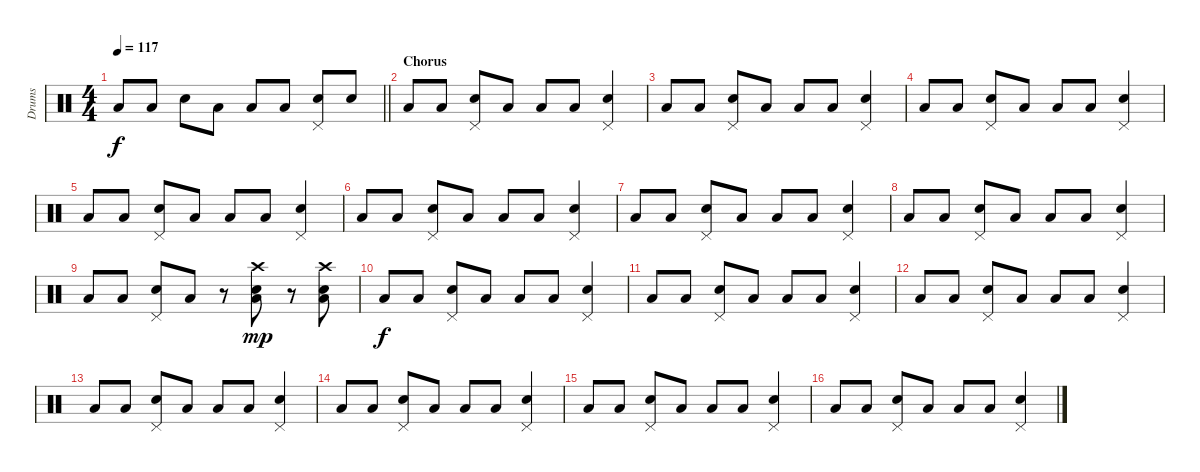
\track ("Drums" "Drums") {instrument percussion}
\staff {score}
\articulation defaults
\ts (4 4)
\tempo 117
\clef neutral
\barLineRight lightlight
\ks c "Low Tom (hit)".8{dy f} "Low Tom (hit)".8 "Snare (hit) 2".8 "Low Tom (hit)".8 "Low Tom (hit)".8 "Low Tom (hit)".8
("Snare (hit) 2" "Pedal Hi-Hat (hit)").8 "Snare (hit) 2".8 |
\section ("" "Chorus")
"Low Tom (hit)".8 "Low Tom (hit)".8 ("Snare (hit) 2" "Pedal Hi-Hat (hit)").8 "Low Tom (hit)".8 "Low Tom (hit)".8 "Low Tom (hit)".8 ("Snare (hit) 2" "Pedal Hi-Hat (hit)").4 |
"Low Tom (hit)".8 "Low Tom (hit)".8 ("Snare (hit) 2" "Pedal Hi-Hat (hit)").8 "Low Tom (hit)".8 "Low Tom (hit)".8 "Low Tom (hit)".8 ("Snare (hit) 2" "Pedal Hi-Hat (hit)").4 |
"Low Tom (hit)".8 "Low Tom (hit)".8 ("Snare (hit) 2" "Pedal Hi-Hat (hit)").8 "Low Tom (hit)".8 "Low Tom (hit)".8 "Low Tom (hit)".8 ("Snare (hit) 2" "Pedal Hi-Hat (hit)").4 |
"Low Tom (hit)".8 "Low Tom (hit)".8 ("Snare (hit) 2" "Pedal Hi-Hat (hit)").8 "Low Tom (hit)".8 "Low Tom (hit)".8 "Low Tom (hit)".8 ("Snare (hit) 2" "Pedal Hi-Hat (hit)").4 |
"Low Tom (hit)".8 "Low Tom (hit)".8 ("Snare (hit) 2" "Pedal Hi-Hat (hit)").8 "Low Tom (hit)".8 "Low Tom (hit)".8 "Low Tom (hit)".8 ("Snare (hit) 2" "Pedal Hi-Hat (hit)").4 |
"Low Tom (hit)".8 "Low Tom (hit)".8 ("Snare (hit) 2" "Pedal Hi-Hat (hit)").8 "Low Tom (hit)".8 "Low Tom (hit)".8 "Low Tom (hit)".8 ("Snare (hit) 2" "Pedal Hi-Hat (hit)").4 |
"Low Tom (hit)".8 "Low Tom (hit)".8 ("Snare (hit) 2" "Pedal Hi-Hat (hit)").8 "Low Tom (hit)".8 "Low Tom (hit)".8 "Low Tom (hit)".8 ("Snare (hit) 2" "Pedal Hi-Hat (hit)").4 |
"Low Tom (hit)".8 "Low Tom (hit)".8 ("Snare (hit) 2" "Pedal Hi-Hat (hit)").8 "Low Tom (hit)".8 r.8 ("Low Tom (hit)" "Crash high (hit)" "Snare (hit) 2").8{dy mp} r.8 ("Low Tom (hit)" "Crash high (hit)" "Snare (hit) 2").8 |
"Low Tom (hit)".8{dy f} "Low Tom (hit)".8 ("Snare (hit) 2" "Pedal Hi-Hat (hit)").8 "Low Tom (hit)".8 "Low Tom (hit)".8 "Low Tom (hit)".8 ("Snare (hit) 2" "Pedal Hi-Hat (hit)").4 |
"Low Tom (hit)".8 "Low Tom (hit)".8 ("Snare (hit) 2" "Pedal Hi-Hat (hit)").8 "Low Tom (hit)".8 "Low Tom (hit)".8 "Low Tom (hit)".8 ("Snare (hit) 2" "Pedal Hi-Hat (hit)").4 |
"Low Tom (hit)".8 "Low Tom (hit)".8 ("Snare (hit) 2" "Pedal Hi-Hat (hit)").8 "Low Tom (hit)".8 "Low Tom (hit)".8 "Low Tom (hit)".8 ("Snare (hit) 2" "Pedal Hi-Hat (hit)").4 |
"Low Tom (hit)".8 "Low Tom (hit)".8 ("Snare (hit) 2" "Pedal Hi-Hat (hit)").8 "Low Tom (hit)".8 "Low Tom (hit)".8 "Low Tom (hit)".8 ("Snare (hit) 2" "Pedal Hi-Hat (hit)").4 |
"Low Tom (hit)".8 "Low Tom (hit)".8 ("Snare (hit) 2" "Pedal Hi-Hat (hit)").8 "Low Tom (hit)".8 "Low Tom (hit)".8 "Low Tom (hit)".8 ("Snare (hit) 2" "Pedal Hi-Hat (hit)").4 |
"Low Tom (hit)".8 "Low Tom (hit)".8 ("Snare (hit) 2" "Pedal Hi-Hat (hit)").8 "Low Tom (hit)".8 "Low Tom (hit)".8 "Low Tom (hit)".8 ("Snare (hit) 2" "Pedal Hi-Hat (hit)").4 |
"Low Tom (hit)".8 "Low Tom (hit)".8 ("Snare (hit) 2" "Pedal Hi-Hat (hit)").8 "Low Tom (hit)".8 "Low Tom (hit)".8 "Low Tom (hit)".8 ("Snare (hit) 2" "Pedal Hi-Hat (hit)").4
